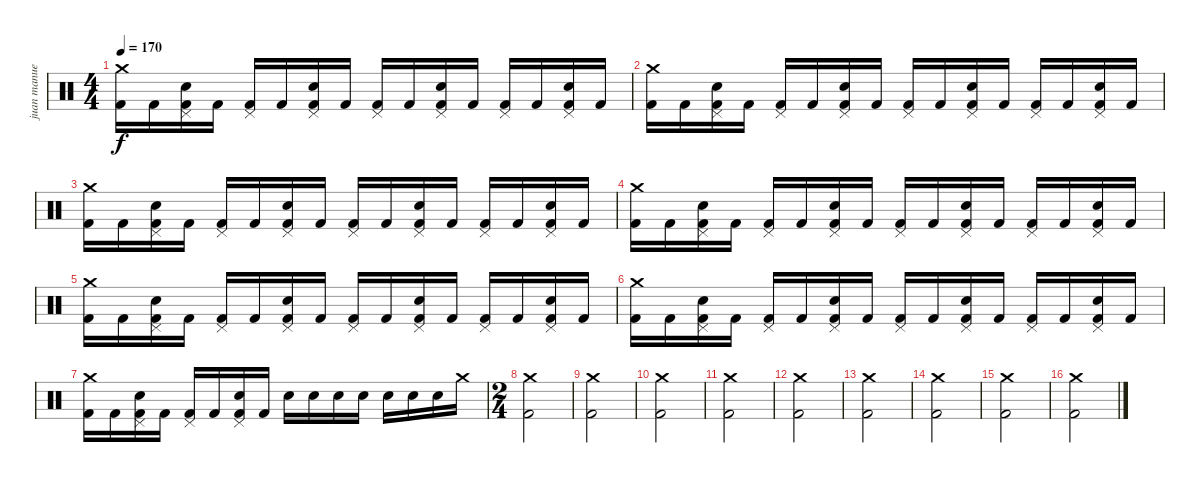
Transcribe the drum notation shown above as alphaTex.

\track ("juan manuel" "juan manue") {instrument percussion}
\staff {score}
\articulation defaults
\ts (4 4)
\tempo 170
\clef neutral
\ks c
("Crash medium (hit)" "Kick (hit) 2").16{dy f} "Kick (hit) 2".16 ("Pedal Hi-Hat (hit)" "Electric Snare (hit)" "Kick (hit) 2").16 "Kick (hit) 2".16 ("Pedal Hi-Hat (hit)" "Kick (hit) 2").16 "Kick (hit) 2".16 ("Pedal Hi-Hat (hit)" "Electric Snare (hit)" "Kick (hit) 2").16 "Kick (hit) 2".16 ("Pedal Hi-Hat (hit)" "Kick (hit) 2").16 "Kick (hit) 2".16 ("Pedal Hi-Hat (hit)" "Electric Snare (hit)" "Kick (hit) 2").16 "Kick (hit) 2".16 ("Pedal Hi-Hat (hit)" "Kick (hit) 2").16 "Kick (hit) 2".16 ("Pedal Hi-Hat (hit)" "Electric Snare (hit)" "Kick (hit) 2").16 "Kick (hit) 2".16 |
("Crash medium (hit)" "Kick (hit) 2").16 "Kick (hit) 2".16 ("Pedal Hi-Hat (hit)" "Electric Snare (hit)" "Kick (hit) 2").16 "Kick (hit) 2".16 ("Pedal Hi-Hat (hit)" "Kick (hit) 2").16 "Kick (hit) 2".16 ("Pedal Hi-Hat (hit)" "Electric Snare (hit)" "Kick (hit) 2").16 "Kick (hit) 2".16 ("Pedal Hi-Hat (hit)" "Kick (hit) 2").16 "Kick (hit) 2".16 ("Pedal Hi-Hat (hit)" "Electric Snare (hit)" "Kick (hit) 2").16 "Kick (hit) 2".16 ("Pedal Hi-Hat (hit)" "Kick (hit) 2").16 "Kick (hit) 2".16 ("Pedal Hi-Hat (hit)" "Electric Snare (hit)" "Kick (hit) 2").16 "Kick (hit) 2".16 |
("Crash medium (hit)" "Kick (hit) 2").16 "Kick (hit) 2".16 ("Pedal Hi-Hat (hit)" "Electric Snare (hit)" "Kick (hit) 2").16 "Kick (hit) 2".16 ("Pedal Hi-Hat (hit)" "Kick (hit) 2").16 "Kick (hit) 2".16 ("Pedal Hi-Hat (hit)" "Electric Snare (hit)" "Kick (hit) 2").16 "Kick (hit) 2".16 ("Pedal Hi-Hat (hit)" "Kick (hit) 2").16 "Kick (hit) 2".16 ("Pedal Hi-Hat (hit)" "Electric Snare (hit)" "Kick (hit) 2").16 "Kick (hit) 2".16 ("Pedal Hi-Hat (hit)" "Kick (hit) 2").16 "Kick (hit) 2".16 ("Pedal Hi-Hat (hit)" "Electric Snare (hit)" "Kick (hit) 2").16 "Kick (hit) 2".16 |
("Crash medium (hit)" "Kick (hit) 2").16 "Kick (hit) 2".16 ("Pedal Hi-Hat (hit)" "Electric Snare (hit)" "Kick (hit) 2").16 "Kick (hit) 2".16 ("Pedal Hi-Hat (hit)" "Kick (hit) 2").16 "Kick (hit) 2".16 ("Pedal Hi-Hat (hit)" "Electric Snare (hit)" "Kick (hit) 2").16 "Kick (hit) 2".16 ("Pedal Hi-Hat (hit)" "Kick (hit) 2").16 "Kick (hit) 2".16 ("Pedal Hi-Hat (hit)" "Electric Snare (hit)" "Kick (hit) 2").16 "Kick (hit) 2".16 ("Pedal Hi-Hat (hit)" "Kick (hit) 2").16 "Kick (hit) 2".16 ("Pedal Hi-Hat (hit)" "Electric Snare (hit)" "Kick (hit) 2").16 "Kick (hit) 2".16 |
("Crash medium (hit)" "Kick (hit) 2").16 "Kick (hit) 2".16 ("Pedal Hi-Hat (hit)" "Electric Snare (hit)" "Kick (hit) 2").16 "Kick (hit) 2".16 ("Pedal Hi-Hat (hit)" "Kick (hit) 2").16 "Kick (hit) 2".16 ("Pedal Hi-Hat (hit)" "Electric Snare (hit)" "Kick (hit) 2").16 "Kick (hit) 2".16 ("Pedal Hi-Hat (hit)" "Kick (hit) 2").16 "Kick (hit) 2".16 ("Pedal Hi-Hat (hit)" "Electric Snare (hit)" "Kick (hit) 2").16 "Kick (hit) 2".16 ("Pedal Hi-Hat (hit)" "Kick (hit) 2").16 "Kick (hit) 2".16 ("Pedal Hi-Hat (hit)" "Electric Snare (hit)" "Kick (hit) 2").16 "Kick (hit) 2".16 |
("Crash medium (hit)" "Kick (hit) 2").16 "Kick (hit) 2".16 ("Pedal Hi-Hat (hit)" "Electric Snare (hit)" "Kick (hit) 2").16 "Kick (hit) 2".16 ("Pedal Hi-Hat (hit)" "Kick (hit) 2").16 "Kick (hit) 2".16 ("Pedal Hi-Hat (hit)" "Electric Snare (hit)" "Kick (hit) 2").16 "Kick (hit) 2".16 ("Pedal Hi-Hat (hit)" "Kick (hit) 2").16 "Kick (hit) 2".16 ("Pedal Hi-Hat (hit)" "Electric Snare (hit)" "Kick (hit) 2").16 "Kick (hit) 2".16 ("Pedal Hi-Hat (hit)" "Kick (hit) 2").16 "Kick (hit) 2".16 ("Pedal Hi-Hat (hit)" "Electric Snare (hit)" "Kick (hit) 2").16 "Kick (hit) 2".16 |
("Crash medium (hit)" "Kick (hit) 2").16 "Kick (hit) 2".16 ("Pedal Hi-Hat (hit)" "Electric Snare (hit)" "Kick (hit) 2").16 "Kick (hit) 2".16 ("Pedal Hi-Hat (hit)" "Kick (hit) 2").16 "Kick (hit) 2".16 ("Pedal Hi-Hat (hit)" "Electric Snare (hit)" "Kick (hit) 2").16 "Kick (hit) 2".16 "Electric Snare (hit)".16 "Electric Snare (hit)".16 "Electric Snare (hit)".16 "Electric Snare (hit)".16 "Electric Snare (hit)".16 "Electric Snare (hit)".16 "Electric Snare (hit)".16 "Crash medium (hit)".16 |
\ts (2 4)
("Crash medium (hit)" "Kick (hit) 2").2 |
("Crash medium (hit)" "Kick (hit) 2").2 |
("Crash medium (hit)" "Kick (hit) 2").2 |
("Crash medium (hit)" "Kick (hit) 2").2 |
("Crash medium (hit)" "Kick (hit) 2").2 |
("Crash medium (hit)" "Kick (hit) 2").2 |
("Crash medium (hit)" "Kick (hit) 2").2 |
("Crash medium (hit)" "Kick (hit) 2").2 |
("Crash medium (hit)" "Kick (hit) 2").2
